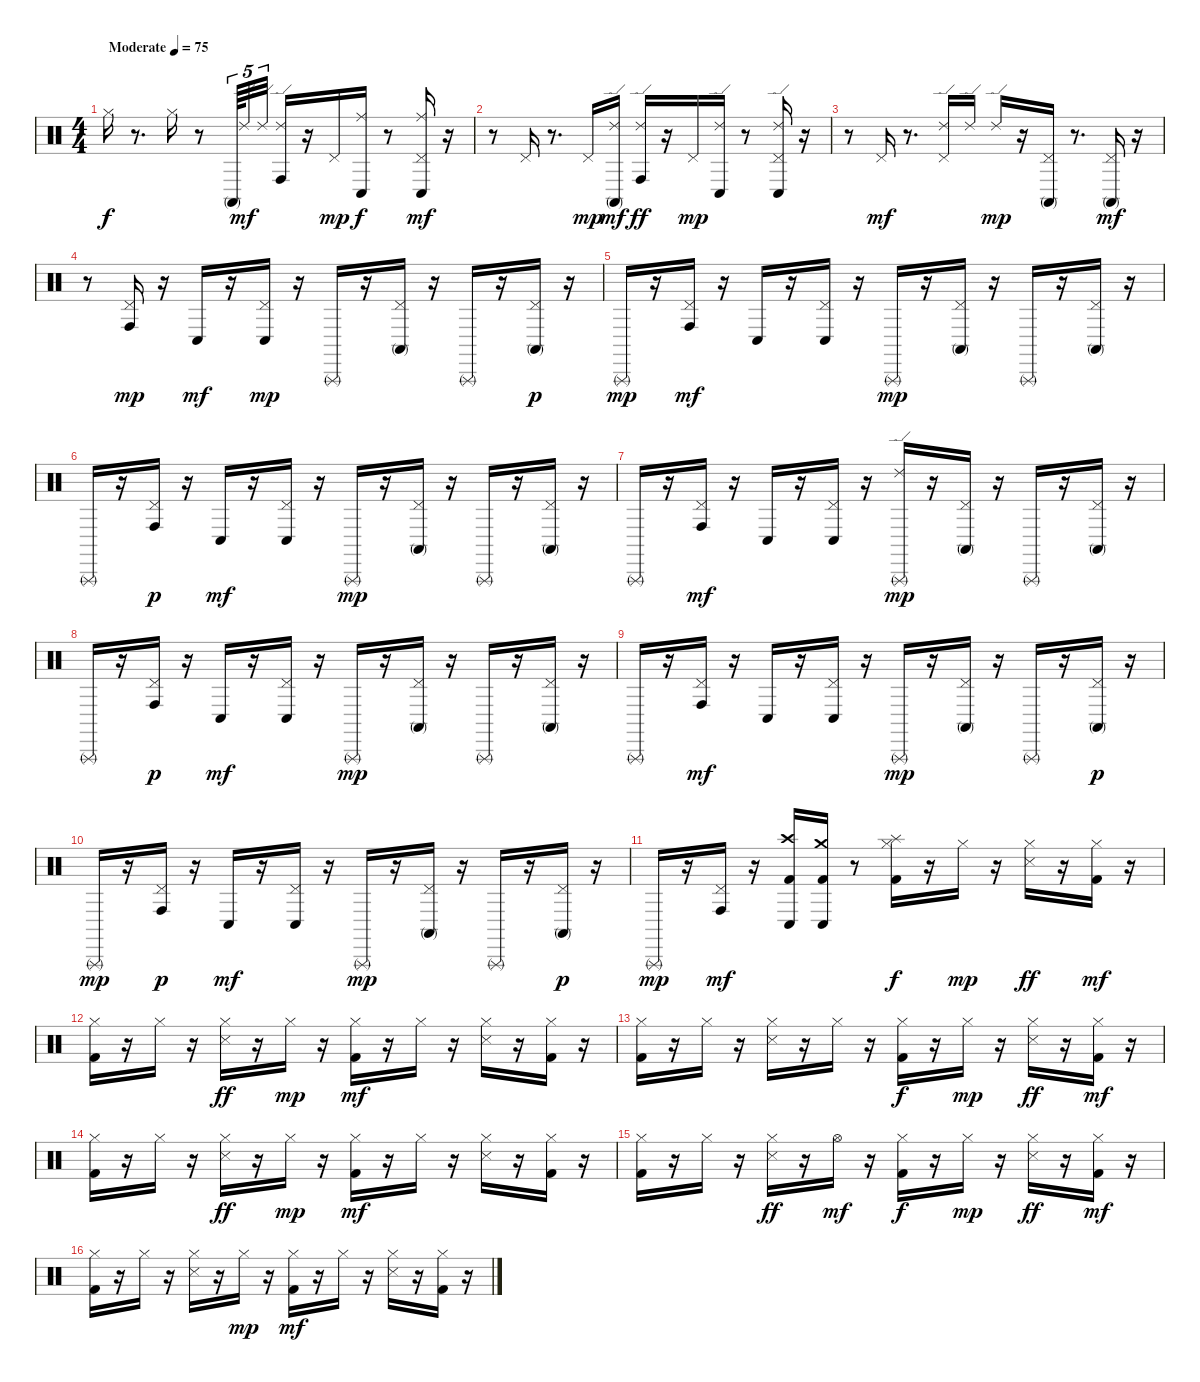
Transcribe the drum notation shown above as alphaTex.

\track "" {instrument percussion}
\staff {score}
\articulation defaults
\ts (4 4)
\tempo (75 "Moderate")
\clef neutral
\ks c "Hi-Hat (closed)".16{dy f}
r.8{d} "Hi-Hat (closed)".16 r.8 "Conga high (mute)".64{tu (5 4)} "Ride (edge) 2".32{tu (5 4) dy mf} "Ride (edge) 2".32{tu (5 4)} ("Conga high (hit)" "Ride (edge) 2").16 r.16 "Pedal Hi-Hat (hit)".16{dy mp} ("Ride (middle)" "Conga low (hit)").16{dy f} r.8 ("Conga low (hit)" "Ride (middle)" "Pedal Hi-Hat (hit)").16{dy mf} r.16 |
r.8 "Pedal Hi-Hat (hit)".16 r.8{d} "Pedal Hi-Hat (hit)".16{dy mp} ("Conga high (mute)" "Ride (edge) 2").16{dy mf} ("Ride (edge) 2" "Conga high (hit)").16{dy ff} r.16 "Pedal Hi-Hat (hit)".16{dy mp} ("Conga low (hit)" "Ride (edge) 2").16 r.8 ("Pedal Hi-Hat (hit)" "Conga low (hit)" "Ride (edge) 2").16 r.16 |
r.8 "Pedal Hi-Hat (hit)".16{dy mf} r.8{d} ("Ride (edge) 2" "Pedal Hi-Hat (hit)").16 "Ride (edge) 2".16 "Ride (edge) 2".16{dy mp} r.16 ("Conga high (mute)" "Pedal Hi-Hat (hit)").16 r.8{d} ("Pedal Hi-Hat (hit)" "Conga high (mute)").16{dy mf} r.16 |
r.8 ("Pedal Hi-Hat (hit)" "Conga high (hit)").16{dy mp} r.16 "Conga low (hit)".16{dy mf} r.16 ("Conga low (hit)" "Pedal Hi-Hat (hit)").16{dy mp} r.16 "Triangle (rnute)".16 r.16 ("Conga high (mute)" "Pedal Hi-Hat (hit)").16 r.16 "Triangle (rnute)".16 r.16 ("Pedal Hi-Hat (hit)" "Conga high (mute)").16{dy p} r.16 |
"Triangle (rnute)".16{dy mp} r.16 ("Conga high (hit)" "Pedal Hi-Hat (hit)").16{dy mf} r.16 "Conga low (hit)".16 r.16 ("Conga low (hit)" "Pedal Hi-Hat (hit)").16 r.16 "Triangle (rnute)".16{dy mp} r.16 ("Conga high (mute)" "Pedal Hi-Hat (hit)").16 r.16 "Triangle (rnute)".16 r.16 ("Conga high (mute)" "Pedal Hi-Hat (hit)").16 r.16 |
"Triangle (rnute)".16 r.16 ("Pedal Hi-Hat (hit)" "Conga high (hit)").16{dy p} r.16 "Conga low (hit)".16{dy mf} r.16 ("Conga low (hit)" "Pedal Hi-Hat (hit)").16 r.16 "Triangle (rnute)".16{dy mp} r.16 ("Pedal Hi-Hat (hit)" "Conga high (mute)").16 r.16 "Triangle (rnute)".16 r.16 ("Conga high (mute)" "Pedal Hi-Hat (hit)").16 r.16 |
"Triangle (rnute)".16 r.16 ("Pedal Hi-Hat (hit)" "Conga high (hit)").16{dy mf} r.16 "Conga low (hit)".16 r.16 ("Conga low (hit)" "Pedal Hi-Hat (hit)").16 r.16 ("Triangle (rnute)" "Ride (edge) 2").16{dy mp} r.16 ("Pedal Hi-Hat (hit)" "Conga high (mute)").16 r.16 "Triangle (rnute)".16 r.16 ("Conga high (mute)" "Pedal Hi-Hat (hit)").16 r.16 |
"Triangle (rnute)".16 r.16 ("Pedal Hi-Hat (hit)" "Conga high (hit)").16{dy p} r.16 "Conga low (hit)".16{dy mf} r.16 ("Conga low (hit)" "Pedal Hi-Hat (hit)").16 r.16 "Triangle (rnute)".16{dy mp} r.16 ("Pedal Hi-Hat (hit)" "Conga high (mute)").16 r.16 "Triangle (rnute)".16 r.16 ("Conga high (mute)" "Pedal Hi-Hat (hit)").16 r.16 |
"Triangle (rnute)".16 r.16 ("Pedal Hi-Hat (hit)" "Conga high (hit)").16{dy mf} r.16 "Conga low (hit)".16 r.16 ("Pedal Hi-Hat (hit)" "Conga low (hit)").16 r.16 "Triangle (rnute)".16{dy mp} r.16 ("Conga high (mute)" "Pedal Hi-Hat (hit)").16 r.16 "Triangle (rnute)".16 r.16 ("Pedal Hi-Hat (hit)" "Conga high (mute)").16{dy p} r.16 |
"Triangle (rnute)".16{dy mp} r.16 ("Pedal Hi-Hat (hit)" "Conga high (hit)").16{dy p} r.16 "Conga low (hit)".16{dy mf} r.16 ("Pedal Hi-Hat (hit)" "Conga low (hit)").16 r.16 "Triangle (rnute)".16{dy mp} r.16 ("Conga high (mute)" "Pedal Hi-Hat (hit)").16 r.16 "Triangle (rnute)".16 r.16 ("Pedal Hi-Hat (hit)" "Conga high (mute)").16{dy p} r.16 |
"Triangle (rnute)".16{dy mp} r.16 ("Conga high (hit)" "Pedal Hi-Hat (hit)").16{dy mf} r.16 ("Conga low (hit)" "Crash high (hit)" "Kick (hit) 2").16 ("Conga low (hit)" "Crash medium (hit)" "Kick (hit) 2").16 r.8 ("Hi-Hat (closed)" "Kick (hit) 2" "Splash (hit)").16{dy f} r.16 "Hi-Hat (closed)".16{dy mp} r.16 ("Hi-Hat (closed)" "Snare (side stick) 3").16{dy ff} r.16 ("Kick (hit) 2" "Hi-Hat (closed)").16{dy mf} r.16 |
("Kick (hit) 2" "Hi-Hat (closed)").16 r.16 "Hi-Hat (closed)".16 r.16 ("Hi-Hat (closed)" "Snare (side stick) 3").16{dy ff} r.16 "Hi-Hat (closed)".16{dy mp} r.16 ("Hi-Hat (closed)" "Kick (hit) 2").16{dy mf} r.16 "Hi-Hat (closed)".16 r.16 ("Snare (side stick) 3" "Hi-Hat (closed)").16 r.16 ("Kick (hit) 2" "Hi-Hat (closed)").16 r.16 |
("Kick (hit) 2" "Hi-Hat (closed)").16 r.16 "Hi-Hat (closed)".16 r.16 ("Snare (side stick) 3" "Hi-Hat (closed)").16 r.16 "Hi-Hat (closed)".16 r.16 ("Hi-Hat (closed)" "Kick (hit) 2").16{dy f} r.16 "Hi-Hat (closed)".16{dy mp} r.16 ("Snare (side stick) 3" "Hi-Hat (closed)").16{dy ff} r.16 ("Hi-Hat (closed)" "Kick (hit) 2").16{dy mf} r.16 |
("Hi-Hat (closed)" "Kick (hit) 2").16 r.16 "Hi-Hat (closed)".16 r.16 ("Hi-Hat (closed)" "Snare (side stick) 3").16{dy ff} r.16 "Hi-Hat (closed)".16{dy mp} r.16 ("Kick (hit) 2" "Hi-Hat (closed)").16{dy mf} r.16 "Hi-Hat (closed)".16 r.16 ("Snare (side stick) 3" "Hi-Hat (closed)").16 r.16 ("Hi-Hat (closed)" "Kick (hit) 2").16 r.16 |
("Kick (hit) 2" "Hi-Hat (closed)").16 r.16 "Hi-Hat (closed)".16 r.16 ("Hi-Hat (closed)" "Snare (side stick) 3").16{dy ff} r.16 "Hi-Hat (open)".16{dy mf} r.16 ("Hi-Hat (closed)" "Kick (hit) 2").16{dy f} r.16 "Hi-Hat (closed)".16{dy mp} r.16 ("Snare (side stick) 3" "Hi-Hat (closed)").16{dy ff} r.16 ("Kick (hit) 2" "Hi-Hat (closed)").16{dy mf} r.16 |
("Kick (hit) 2" "Hi-Hat (closed)").16 r.16 "Hi-Hat (closed)".16 r.16 ("Snare (side stick) 3" "Hi-Hat (closed)").16 r.16 "Hi-Hat (closed)".16{dy mp} r.16 ("Hi-Hat (closed)" "Kick (hit) 2").16{dy mf} r.16 "Hi-Hat (closed)".16 r.16 ("Snare (side stick) 3" "Hi-Hat (closed)").16 r.16 ("Hi-Hat (closed)" "Kick (hit) 2").16 r.16
